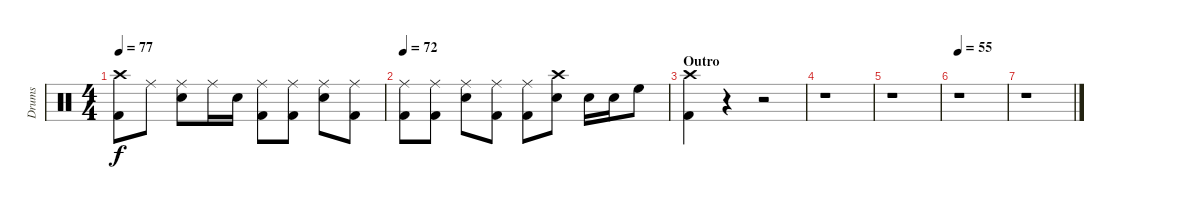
\track ("Drums" "Drums") {instrument percussion}
\staff {score}
\articulation defaults
\ts (4 4)
\tempo 77
\clef neutral
\ks c
("Crash high (hit)" "Kick (hit) 2").8{dy f} "Ride (middle)".8 ("Ride (middle)" "Snare (hit) 2").8 "Ride (middle)".16 "Snare (hit) 2".16 ("Ride (middle)" "Kick (hit) 2").8 ("Ride (middle)" "Kick (hit) 2").8 ("Ride (middle)" "Snare (hit) 2").8 ("Ride (middle)" "Kick (hit) 2").8 |
\tempo 72
("Ride (middle)" "Kick (hit) 2").8 ("Ride (middle)" "Kick (hit) 2").8 ("Ride (middle)" "Snare (hit) 2").8 ("Ride (middle)" "Kick (hit) 2").8 ("Ride (middle)" "Kick (hit) 2").8 ("Crash high (hit)" "Snare (hit) 2").8 "Snare (hit) 2".16 "Snare (hit) 2".16 "High Floor Tom (hit)".8 |
\section ("" "Outro")
("Crash high (hit)" "Kick (hit) 2").4 r.4 r.2 |
r.1 |
r.1 |
\tempo 55
r.1 |
r.1
